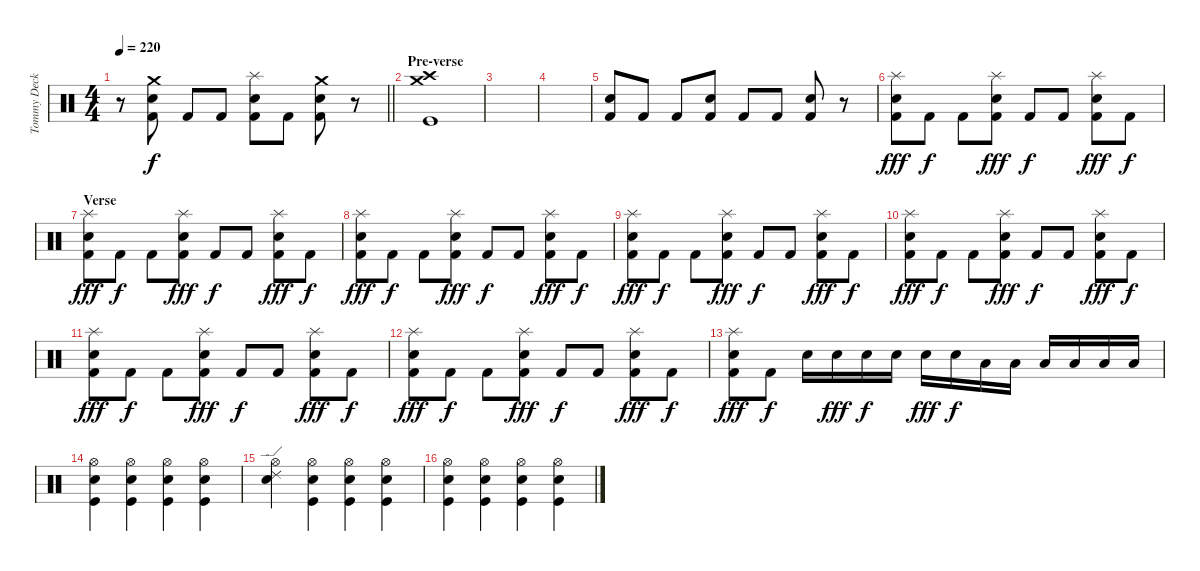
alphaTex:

\track ("Tommy Decker" "Tommy Deck") {instrument percussion}
\staff {score}
\articulation defaults
\ts (4 4)
\tempo 220
\clef neutral
\barLineRight lightlight
\ks c
r.8{dy f} ("Crash medium (hit)" "Electric Snare (hit)" "Kick (hit) 2").8 "Kick (hit) 2".8 "Kick (hit) 2".8 ("Splash (hit)" "Electric Snare (hit)" "Kick (hit) 2").8 "Kick (hit) 2".8 ("Crash medium (hit)" "Electric Snare (hit)" "Kick (hit) 2").8 r.8 |
\section ("" "Pre-verse")
("Crash high (hit)" "Crash medium (hit)" "Kick (hit)").1 |
|
|
("Electric Snare (hit)" "Kick (hit) 2").8 "Kick (hit) 2".8 "Kick (hit) 2".8 ("Electric Snare (hit)" "Kick (hit) 2").8 "Kick (hit) 2".8 "Kick (hit) 2".8 ("Electric Snare (hit)" "Kick (hit) 2").8 r.8 |
("Splash (hit)" "Electric Snare (hit)" "Kick (hit) 2").8{dy fff} "Kick (hit) 2".8{dy f} "Kick (hit) 2".8 ("Splash (hit)" "Electric Snare (hit)" "Kick (hit) 2").8{dy fff} "Kick (hit) 2".8{dy f} "Kick (hit) 2".8 ("Splash (hit)" "Electric Snare (hit)" "Kick (hit) 2").8{dy fff} "Kick (hit) 2".8{dy f} |
\section ("" "Verse")
("Splash (hit)" "Electric Snare (hit)" "Kick (hit) 2").8{dy fff} "Kick (hit) 2".8{dy f} "Kick (hit) 2".8 ("Splash (hit)" "Electric Snare (hit)" "Kick (hit) 2").8{dy fff} "Kick (hit) 2".8{dy f} "Kick (hit) 2".8 ("Splash (hit)" "Electric Snare (hit)" "Kick (hit) 2").8{dy fff} "Kick (hit) 2".8{dy f} |
("Splash (hit)" "Electric Snare (hit)" "Kick (hit) 2").8{dy fff} "Kick (hit) 2".8{dy f} "Kick (hit) 2".8 ("Splash (hit)" "Electric Snare (hit)" "Kick (hit) 2").8{dy fff} "Kick (hit) 2".8{dy f} "Kick (hit) 2".8 ("Splash (hit)" "Electric Snare (hit)" "Kick (hit) 2").8{dy fff} "Kick (hit) 2".8{dy f} |
("Splash (hit)" "Electric Snare (hit)" "Kick (hit) 2").8{dy fff} "Kick (hit) 2".8{dy f} "Kick (hit) 2".8 ("Splash (hit)" "Electric Snare (hit)" "Kick (hit) 2").8{dy fff} "Kick (hit) 2".8{dy f} "Kick (hit) 2".8 ("Splash (hit)" "Electric Snare (hit)" "Kick (hit) 2").8{dy fff} "Kick (hit) 2".8{dy f} |
("Splash (hit)" "Electric Snare (hit)" "Kick (hit) 2").8{dy fff} "Kick (hit) 2".8{dy f} "Kick (hit) 2".8 ("Splash (hit)" "Electric Snare (hit)" "Kick (hit) 2").8{dy fff} "Kick (hit) 2".8{dy f} "Kick (hit) 2".8 ("Splash (hit)" "Electric Snare (hit)" "Kick (hit) 2").8{dy fff} "Kick (hit) 2".8{dy f} |
("Splash (hit)" "Electric Snare (hit)" "Kick (hit) 2").8{dy fff} "Kick (hit) 2".8{dy f} "Kick (hit) 2".8 ("Splash (hit)" "Electric Snare (hit)" "Kick (hit) 2").8{dy fff} "Kick (hit) 2".8{dy f} "Kick (hit) 2".8 ("Splash (hit)" "Electric Snare (hit)" "Kick (hit) 2").8{dy fff} "Kick (hit) 2".8{dy f} |
("Splash (hit)" "Electric Snare (hit)" "Kick (hit) 2").8{dy fff} "Kick (hit) 2".8{dy f} "Kick (hit) 2".8 ("Splash (hit)" "Electric Snare (hit)" "Kick (hit) 2").8{dy fff} "Kick (hit) 2".8{dy f} "Kick (hit) 2".8 ("Splash (hit)" "Electric Snare (hit)" "Kick (hit) 2").8{dy fff} "Kick (hit) 2".8{dy f} |
("Splash (hit)" "Electric Snare (hit)" "Kick (hit) 2").8{dy fff} "Kick (hit) 2".8{dy f} "Electric Snare (hit)".16 "Electric Snare (hit)".16{dy fff} "Electric Snare (hit)".16{dy f} "Electric Snare (hit)".16 "Electric Snare (hit)".16{dy fff} "Electric Snare (hit)".16{dy f} "Low Floor Tom (hit)".16 "Low Floor Tom (hit)".16 "Low Floor Tom (hit)".16 "Low Floor Tom (hit)".16 "Low Floor Tom (hit)".16 "Low Floor Tom (hit)".16 |
("Hi-Hat (open)" "Electric Snare (hit)" "Kick (hit)").4 ("Hi-Hat (open)" "Electric Snare (hit)" "Kick (hit)").4 ("Hi-Hat (open)" "Electric Snare (hit)" "Kick (hit)").4 ("Hi-Hat (open)" "Electric Snare (hit)" "Kick (hit)").4 |
("Hi-Hat (open)" "Electric Snare (hit)" "Ride (edge) 2").4 ("Hi-Hat (open)" "Electric Snare (hit)" "Kick (hit)").4 ("Hi-Hat (open)" "Electric Snare (hit)" "Kick (hit)").4 ("Hi-Hat (open)" "Electric Snare (hit)" "Kick (hit)").4 |
("Hi-Hat (open)" "Electric Snare (hit)" "Kick (hit)").4 ("Hi-Hat (open)" "Electric Snare (hit)" "Kick (hit)").4 ("Hi-Hat (open)" "Electric Snare (hit)" "Kick (hit)").4 ("Hi-Hat (open)" "Electric Snare (hit)" "Kick (hit)").4
